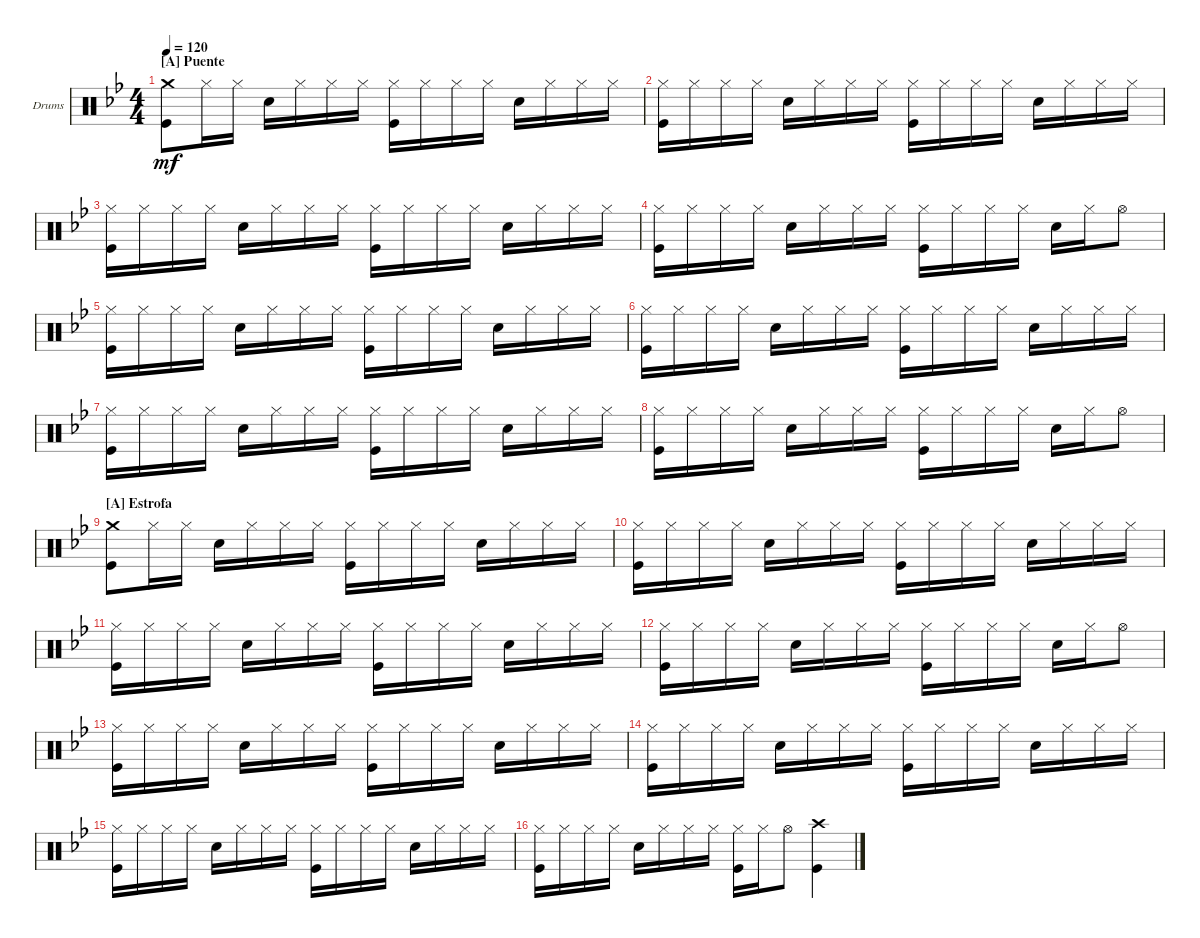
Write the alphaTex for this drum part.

\bracketExtendMode groupsimilarinstruments
\firstSystemTrackNameOrientation horizontal
\otherSystemsTrackNameOrientation horizontal
\track ("Drums Ghoul" "Drums") {instrument percussion}
\staff {score}
\articulation defaults
\ts (4 4)
\section ("A" "Puente")
\tempo 120
\clef neutral
\ks bb
("Kick (hit)" "Crash medium (hit)").8{dy mf} "Hi-Hat (closed)".16 "Hi-Hat (closed)".16 "Snare (hit) 2".16 "Hi-Hat (closed)".16 "Hi-Hat (closed)".16 "Hi-Hat (closed)".16 ("Hi-Hat (closed)" "Kick (hit)").16 "Hi-Hat (closed)".16 "Hi-Hat (closed)".16 "Hi-Hat (closed)".16 "Snare (hit) 2".16 "Hi-Hat (closed)".16 "Hi-Hat (closed)".16 "Hi-Hat (closed)".16 |
("Hi-Hat (closed)" "Kick (hit)").16 "Hi-Hat (closed)".16 "Hi-Hat (closed)".16 "Hi-Hat (closed)".16 "Snare (hit) 2".16 "Hi-Hat (closed)".16 "Hi-Hat (closed)".16 "Hi-Hat (closed)".16 ("Hi-Hat (closed)" "Kick (hit)").16 "Hi-Hat (closed)".16 "Hi-Hat (closed)".16 "Hi-Hat (closed)".16 "Snare (hit) 2".16 "Hi-Hat (closed)".16 "Hi-Hat (closed)".16 "Hi-Hat (closed)".16 |
("Hi-Hat (closed)" "Kick (hit)").16 "Hi-Hat (closed)".16 "Hi-Hat (closed)".16 "Hi-Hat (closed)".16 "Snare (hit) 2".16 "Hi-Hat (closed)".16 "Hi-Hat (closed)".16 "Hi-Hat (closed)".16 ("Hi-Hat (closed)" "Kick (hit)").16 "Hi-Hat (closed)".16 "Hi-Hat (closed)".16 "Hi-Hat (closed)".16 "Snare (hit) 2".16 "Hi-Hat (closed)".16 "Hi-Hat (closed)".16 "Hi-Hat (closed)".16 |
("Hi-Hat (closed)" "Kick (hit)").16 "Hi-Hat (closed)".16 "Hi-Hat (closed)".16 "Hi-Hat (closed)".16 "Snare (hit) 2".16 "Hi-Hat (closed)".16 "Hi-Hat (closed)".16 "Hi-Hat (closed)".16 ("Hi-Hat (closed)" "Kick (hit)").16 "Hi-Hat (closed)".16 "Hi-Hat (closed)".16 "Hi-Hat (closed)".16 "Snare (hit) 2".16 "Hi-Hat (closed)".16 "Hi-Hat (open)".8 |
("Kick (hit)" "Hi-Hat (closed)").16 "Hi-Hat (closed)".16 "Hi-Hat (closed)".16 "Hi-Hat (closed)".16 "Snare (hit) 2".16 "Hi-Hat (closed)".16 "Hi-Hat (closed)".16 "Hi-Hat (closed)".16 ("Hi-Hat (closed)" "Kick (hit)").16 "Hi-Hat (closed)".16 "Hi-Hat (closed)".16 "Hi-Hat (closed)".16 "Snare (hit) 2".16 "Hi-Hat (closed)".16 "Hi-Hat (closed)".16 "Hi-Hat (closed)".16 |
("Hi-Hat (closed)" "Kick (hit)").16 "Hi-Hat (closed)".16 "Hi-Hat (closed)".16 "Hi-Hat (closed)".16 "Snare (hit) 2".16 "Hi-Hat (closed)".16 "Hi-Hat (closed)".16 "Hi-Hat (closed)".16 ("Hi-Hat (closed)" "Kick (hit)").16 "Hi-Hat (closed)".16 "Hi-Hat (closed)".16 "Hi-Hat (closed)".16 "Snare (hit) 2".16 "Hi-Hat (closed)".16 "Hi-Hat (closed)".16 "Hi-Hat (closed)".16 |
("Hi-Hat (closed)" "Kick (hit)").16 "Hi-Hat (closed)".16 "Hi-Hat (closed)".16 "Hi-Hat (closed)".16 "Snare (hit) 2".16 "Hi-Hat (closed)".16 "Hi-Hat (closed)".16 "Hi-Hat (closed)".16 ("Hi-Hat (closed)" "Kick (hit)").16 "Hi-Hat (closed)".16 "Hi-Hat (closed)".16 "Hi-Hat (closed)".16 "Snare (hit) 2".16 "Hi-Hat (closed)".16 "Hi-Hat (closed)".16 "Hi-Hat (closed)".16 |
("Hi-Hat (closed)" "Kick (hit)").16 "Hi-Hat (closed)".16 "Hi-Hat (closed)".16 "Hi-Hat (closed)".16 "Snare (hit) 2".16 "Hi-Hat (closed)".16 "Hi-Hat (closed)".16 "Hi-Hat (closed)".16 ("Hi-Hat (closed)" "Kick (hit)").16 "Hi-Hat (closed)".16 "Hi-Hat (closed)".16 "Hi-Hat (closed)".16 "Snare (hit) 2".16 "Hi-Hat (closed)".16 "Hi-Hat (open)".8 |
\section ("A" "Estrofa")
("Kick (hit)" "Crash medium (hit)").8 "Hi-Hat (closed)".16 "Hi-Hat (closed)".16 "Snare (hit) 2".16 "Hi-Hat (closed)".16 "Hi-Hat (closed)".16 "Hi-Hat (closed)".16 ("Hi-Hat (closed)" "Kick (hit)").16 "Hi-Hat (closed)".16 "Hi-Hat (closed)".16 "Hi-Hat (closed)".16 "Snare (hit) 2".16 "Hi-Hat (closed)".16 "Hi-Hat (closed)".16 "Hi-Hat (closed)".16 |
("Hi-Hat (closed)" "Kick (hit)").16 "Hi-Hat (closed)".16 "Hi-Hat (closed)".16 "Hi-Hat (closed)".16 "Snare (hit) 2".16 "Hi-Hat (closed)".16 "Hi-Hat (closed)".16 "Hi-Hat (closed)".16 ("Hi-Hat (closed)" "Kick (hit)").16 "Hi-Hat (closed)".16 "Hi-Hat (closed)".16 "Hi-Hat (closed)".16 "Snare (hit) 2".16 "Hi-Hat (closed)".16 "Hi-Hat (closed)".16 "Hi-Hat (closed)".16 |
("Hi-Hat (closed)" "Kick (hit)").16 "Hi-Hat (closed)".16 "Hi-Hat (closed)".16 "Hi-Hat (closed)".16 "Snare (hit) 2".16 "Hi-Hat (closed)".16 "Hi-Hat (closed)".16 "Hi-Hat (closed)".16 ("Hi-Hat (closed)" "Kick (hit)").16 "Hi-Hat (closed)".16 "Hi-Hat (closed)".16 "Hi-Hat (closed)".16 "Snare (hit) 2".16 "Hi-Hat (closed)".16 "Hi-Hat (closed)".16 "Hi-Hat (closed)".16 |
("Hi-Hat (closed)" "Kick (hit)").16 "Hi-Hat (closed)".16 "Hi-Hat (closed)".16 "Hi-Hat (closed)".16 "Snare (hit) 2".16 "Hi-Hat (closed)".16 "Hi-Hat (closed)".16 "Hi-Hat (closed)".16 ("Hi-Hat (closed)" "Kick (hit)").16 "Hi-Hat (closed)".16 "Hi-Hat (closed)".16 "Hi-Hat (closed)".16 "Snare (hit) 2".16 "Hi-Hat (closed)".16 "Hi-Hat (open)".8 |
("Kick (hit)" "Hi-Hat (closed)").16 "Hi-Hat (closed)".16 "Hi-Hat (closed)".16 "Hi-Hat (closed)".16 "Snare (hit) 2".16 "Hi-Hat (closed)".16 "Hi-Hat (closed)".16 "Hi-Hat (closed)".16 ("Hi-Hat (closed)" "Kick (hit)").16 "Hi-Hat (closed)".16 "Hi-Hat (closed)".16 "Hi-Hat (closed)".16 "Snare (hit) 2".16 "Hi-Hat (closed)".16 "Hi-Hat (closed)".16 "Hi-Hat (closed)".16 |
("Hi-Hat (closed)" "Kick (hit)").16 "Hi-Hat (closed)".16 "Hi-Hat (closed)".16 "Hi-Hat (closed)".16 "Snare (hit) 2".16 "Hi-Hat (closed)".16 "Hi-Hat (closed)".16 "Hi-Hat (closed)".16 ("Hi-Hat (closed)" "Kick (hit)").16 "Hi-Hat (closed)".16 "Hi-Hat (closed)".16 "Hi-Hat (closed)".16 "Snare (hit) 2".16 "Hi-Hat (closed)".16 "Hi-Hat (closed)".16 "Hi-Hat (closed)".16 |
("Hi-Hat (closed)" "Kick (hit)").16 "Hi-Hat (closed)".16 "Hi-Hat (closed)".16 "Hi-Hat (closed)".16 "Snare (hit) 2".16 "Hi-Hat (closed)".16 "Hi-Hat (closed)".16 "Hi-Hat (closed)".16 ("Hi-Hat (closed)" "Kick (hit)").16 "Hi-Hat (closed)".16 "Hi-Hat (closed)".16 "Hi-Hat (closed)".16 "Snare (hit) 2".16 "Hi-Hat (closed)".16 "Hi-Hat (closed)".16 "Hi-Hat (closed)".16 |
("Hi-Hat (closed)" "Kick (hit)").16 "Hi-Hat (closed)".16 "Hi-Hat (closed)".16 "Hi-Hat (closed)".16 "Snare (hit) 2".16 "Hi-Hat (closed)".16 "Hi-Hat (closed)".16 "Hi-Hat (closed)".16 ("Hi-Hat (closed)" "Kick (hit)").16 "Hi-Hat (closed)".16 "Hi-Hat (open)".8 ("Kick (hit)" "Crash high (hit)").4
